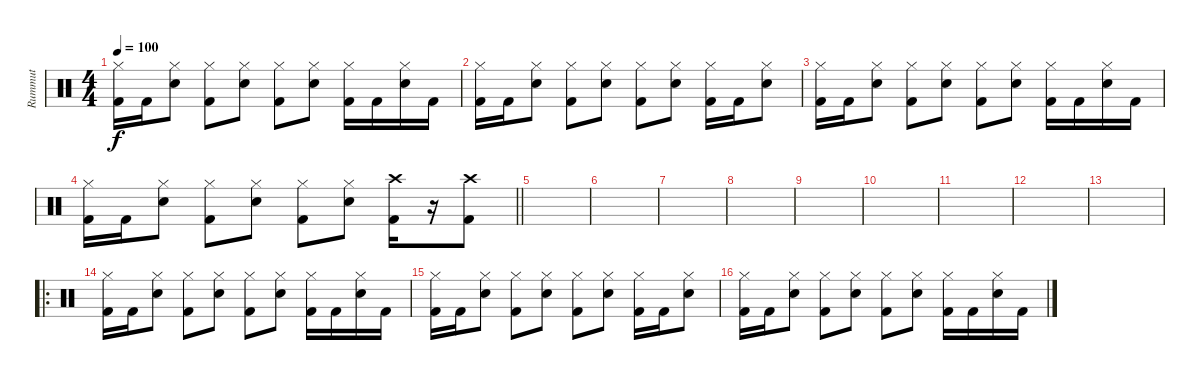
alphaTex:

\track ("Rummut" "Rummut") {instrument percussion}
\staff {score}
\articulation defaults
\ts (4 4)
\tempo 100
\clef neutral
\ks c
("Hi-Hat (closed)" "Kick (hit) 2").16{dy f} "Kick (hit) 2".16 ("Hi-Hat (closed)" "Snare (hit) 2").8 ("Hi-Hat (closed)" "Kick (hit) 2").8 ("Hi-Hat (closed)" "Snare (hit) 2").8 ("Hi-Hat (closed)" "Kick (hit) 2").8 ("Hi-Hat (closed)" "Snare (hit) 2").8 ("Hi-Hat (closed)" "Kick (hit) 2").16 "Kick (hit) 2".16 ("Hi-Hat (closed)" "Snare (hit) 2").16 "Kick (hit) 2".16 |
("Hi-Hat (closed)" "Kick (hit) 2").16 "Kick (hit) 2".16 ("Hi-Hat (closed)" "Snare (hit) 2").8 ("Hi-Hat (closed)" "Kick (hit) 2").8 ("Hi-Hat (closed)" "Snare (hit) 2").8 ("Hi-Hat (closed)" "Kick (hit) 2").8 ("Hi-Hat (closed)" "Snare (hit) 2").8 ("Hi-Hat (closed)" "Kick (hit) 2").16 "Kick (hit) 2".16 ("Hi-Hat (closed)" "Snare (hit) 2").8 |
("Hi-Hat (closed)" "Kick (hit) 2").16 "Kick (hit) 2".16 ("Hi-Hat (closed)" "Snare (hit) 2").8 ("Hi-Hat (closed)" "Kick (hit) 2").8 ("Hi-Hat (closed)" "Snare (hit) 2").8 ("Hi-Hat (closed)" "Kick (hit) 2").8 ("Hi-Hat (closed)" "Snare (hit) 2").8 ("Hi-Hat (closed)" "Kick (hit) 2").16 "Kick (hit) 2".16 ("Hi-Hat (closed)" "Snare (hit) 2").16 "Kick (hit) 2".16 |
\barLineRight lightlight
("Hi-Hat (closed)" "Kick (hit) 2").16 "Kick (hit) 2".16 ("Hi-Hat (closed)" "Snare (hit) 2").8 ("Hi-Hat (closed)" "Kick (hit) 2").8 ("Hi-Hat (closed)" "Snare (hit) 2").8 ("Hi-Hat (closed)" "Kick (hit) 2").8 ("Hi-Hat (closed)" "Snare (hit) 2").8 ("Crash high (hit)" "Kick (hit) 2").16 r.16 ("Crash high (hit)" "Kick (hit) 2").8 |
|
|
|
|
|
|
|
|
|
\ro
("Hi-Hat (closed)" "Kick (hit) 2").16 "Kick (hit) 2".16 ("Hi-Hat (closed)" "Snare (hit) 2").8 ("Hi-Hat (closed)" "Kick (hit) 2").8 ("Hi-Hat (closed)" "Snare (hit) 2").8 ("Hi-Hat (closed)" "Kick (hit) 2").8 ("Hi-Hat (closed)" "Snare (hit) 2").8 ("Hi-Hat (closed)" "Kick (hit) 2").16 "Kick (hit) 2".16 ("Hi-Hat (closed)" "Snare (hit) 2").16 "Kick (hit) 2".16 |
("Hi-Hat (closed)" "Kick (hit) 2").16 "Kick (hit) 2".16 ("Hi-Hat (closed)" "Snare (hit) 2").8 ("Hi-Hat (closed)" "Kick (hit) 2").8 ("Hi-Hat (closed)" "Snare (hit) 2").8 ("Hi-Hat (closed)" "Kick (hit) 2").8 ("Hi-Hat (closed)" "Snare (hit) 2").8 ("Hi-Hat (closed)" "Kick (hit) 2").16 "Kick (hit) 2".16 ("Hi-Hat (closed)" "Snare (hit) 2").8 |
("Hi-Hat (closed)" "Kick (hit) 2").16 "Kick (hit) 2".16 ("Hi-Hat (closed)" "Snare (hit) 2").8 ("Hi-Hat (closed)" "Kick (hit) 2").8 ("Hi-Hat (closed)" "Snare (hit) 2").8 ("Hi-Hat (closed)" "Kick (hit) 2").8 ("Hi-Hat (closed)" "Snare (hit) 2").8 ("Hi-Hat (closed)" "Kick (hit) 2").16 "Kick (hit) 2".16 ("Hi-Hat (closed)" "Snare (hit) 2").16 "Kick (hit) 2".16
